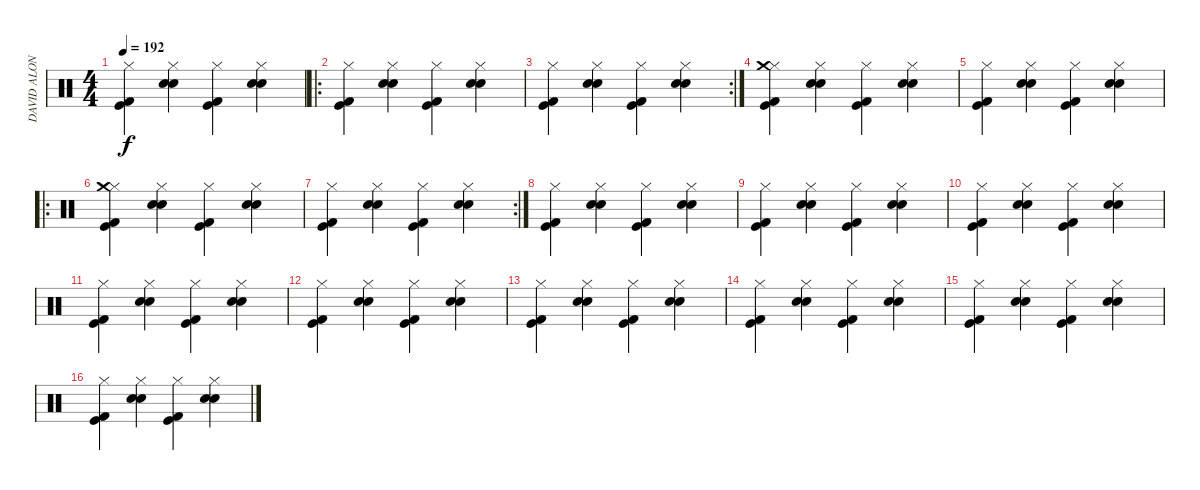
\track ("DAVID ALONSO" "DAVID ALON") {instrument percussion}
\staff {score}
\articulation defaults
\ts (4 4)
\tempo 192
\clef neutral
\ks c
("Kick (hit)" "Kick (hit) 2" "Hi-Hat (closed)").4{dy f} ("Electric Snare (hit)" "Snare (hit) 2" "Hi-Hat (closed)").4 ("Kick (hit)" "Kick (hit) 2" "Hi-Hat (closed)").4 ("Electric Snare (hit)" "Snare (hit) 2" "Hi-Hat (closed)").4 |
\ro
("Kick (hit)" "Kick (hit) 2" "Hi-Hat (closed)").4 ("Electric Snare (hit)" "Snare (hit) 2" "Hi-Hat (closed)").4 ("Kick (hit)" "Kick (hit) 2" "Hi-Hat (closed)").4 ("Electric Snare (hit)" "Snare (hit) 2" "Hi-Hat (closed)").4 |
\rc 2
("Kick (hit)" "Kick (hit) 2" "Hi-Hat (closed)").4 ("Electric Snare (hit)" "Snare (hit) 2" "Hi-Hat (closed)").4 ("Kick (hit)" "Kick (hit) 2" "Hi-Hat (closed)").4 ("Electric Snare (hit)" "Snare (hit) 2" "Hi-Hat (closed)").4 |
("Kick (hit)" "Kick (hit) 2" "Hi-Hat (closed)" "Crash medium (hit)").4 ("Electric Snare (hit)" "Snare (hit) 2" "Hi-Hat (closed)").4 ("Kick (hit)" "Kick (hit) 2" "Hi-Hat (closed)").4 ("Electric Snare (hit)" "Snare (hit) 2" "Hi-Hat (closed)").4 |
("Kick (hit)" "Kick (hit) 2" "Hi-Hat (closed)").4 ("Electric Snare (hit)" "Snare (hit) 2" "Hi-Hat (closed)").4 ("Kick (hit)" "Kick (hit) 2" "Hi-Hat (closed)").4 ("Electric Snare (hit)" "Snare (hit) 2" "Hi-Hat (closed)").4 |
\ro
("Kick (hit)" "Kick (hit) 2" "Hi-Hat (closed)" "Crash medium (hit)").4 ("Electric Snare (hit)" "Snare (hit) 2" "Hi-Hat (closed)").4 ("Kick (hit)" "Kick (hit) 2" "Hi-Hat (closed)").4 ("Electric Snare (hit)" "Snare (hit) 2" "Hi-Hat (closed)").4 |
\rc 2
("Kick (hit)" "Kick (hit) 2" "Hi-Hat (closed)").4 ("Electric Snare (hit)" "Snare (hit) 2" "Hi-Hat (closed)").4 ("Kick (hit)" "Kick (hit) 2" "Hi-Hat (closed)").4 ("Electric Snare (hit)" "Snare (hit) 2" "Hi-Hat (closed)").4 |
("Kick (hit)" "Kick (hit) 2" "Hi-Hat (closed)").4 ("Electric Snare (hit)" "Snare (hit) 2" "Hi-Hat (closed)").4 ("Kick (hit)" "Kick (hit) 2" "Hi-Hat (closed)").4 ("Electric Snare (hit)" "Snare (hit) 2" "Hi-Hat (closed)").4 |
("Kick (hit)" "Kick (hit) 2" "Hi-Hat (closed)").4 ("Electric Snare (hit)" "Snare (hit) 2" "Hi-Hat (closed)").4 ("Kick (hit)" "Kick (hit) 2" "Hi-Hat (closed)").4 ("Electric Snare (hit)" "Snare (hit) 2" "Hi-Hat (closed)").4 |
("Kick (hit)" "Kick (hit) 2" "Hi-Hat (closed)").4 ("Electric Snare (hit)" "Snare (hit) 2" "Hi-Hat (closed)").4 ("Kick (hit)" "Kick (hit) 2" "Hi-Hat (closed)").4 ("Electric Snare (hit)" "Snare (hit) 2" "Hi-Hat (closed)").4 |
("Kick (hit)" "Kick (hit) 2" "Hi-Hat (closed)").4 ("Electric Snare (hit)" "Snare (hit) 2" "Hi-Hat (closed)").4 ("Kick (hit)" "Kick (hit) 2" "Hi-Hat (closed)").4 ("Electric Snare (hit)" "Snare (hit) 2" "Hi-Hat (closed)").4 |
("Kick (hit)" "Kick (hit) 2" "Hi-Hat (closed)").4 ("Electric Snare (hit)" "Snare (hit) 2" "Hi-Hat (closed)").4 ("Kick (hit)" "Kick (hit) 2" "Hi-Hat (closed)").4 ("Electric Snare (hit)" "Snare (hit) 2" "Hi-Hat (closed)").4 |
("Kick (hit)" "Kick (hit) 2" "Hi-Hat (closed)").4 ("Electric Snare (hit)" "Snare (hit) 2" "Hi-Hat (closed)").4 ("Kick (hit)" "Kick (hit) 2" "Hi-Hat (closed)").4 ("Electric Snare (hit)" "Snare (hit) 2" "Hi-Hat (closed)").4 |
("Kick (hit)" "Kick (hit) 2" "Hi-Hat (closed)").4 ("Electric Snare (hit)" "Snare (hit) 2" "Hi-Hat (closed)").4 ("Kick (hit)" "Kick (hit) 2" "Hi-Hat (closed)").4 ("Electric Snare (hit)" "Snare (hit) 2" "Hi-Hat (closed)").4 |
("Kick (hit)" "Kick (hit) 2" "Hi-Hat (closed)").4 ("Electric Snare (hit)" "Snare (hit) 2" "Hi-Hat (closed)").4 ("Kick (hit)" "Kick (hit) 2" "Hi-Hat (closed)").4 ("Electric Snare (hit)" "Snare (hit) 2" "Hi-Hat (closed)").4 |
("Kick (hit)" "Kick (hit) 2" "Hi-Hat (closed)").4 ("Electric Snare (hit)" "Snare (hit) 2" "Hi-Hat (closed)").4 ("Kick (hit)" "Kick (hit) 2" "Hi-Hat (closed)").4 ("Electric Snare (hit)" "Snare (hit) 2" "Hi-Hat (closed)").4
